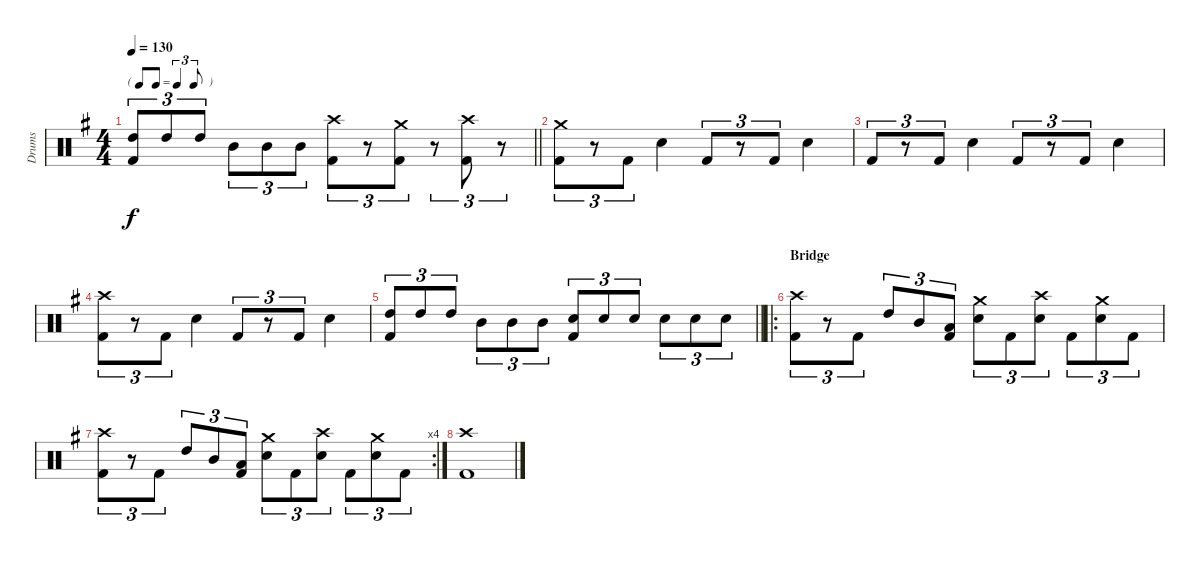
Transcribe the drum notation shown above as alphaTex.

\track ("Drums" "Drums") {instrument percussion}
\staff {score}
\articulation defaults
\ts (4 4)
\tf triplet8th
\tempo 130
\clef neutral
\barLineRight lightlight
\ks eminor
("Kick (hit) 2" "High Tom (hit)").8{tu (3 2) dy f} "High Tom (hit)".8{tu (3 2)} "High Tom (hit)".8{tu (3 2)} "Mid Tom (hit)".8{tu (3 2)} "Mid Tom (hit)".8{tu (3 2)} "Mid Tom (hit)".8{tu (3 2)} ("Kick (hit) 2" "Crash high (hit)").8{tu (3 2)} r.8{tu (3 2)} ("Kick (hit) 2" "Crash medium (hit)").8{tu (3 2)} r.8{tu (3 2)} ("Kick (hit) 2" "Crash high (hit)").8{tu (3 2)} r.8{tu (3 2)} |
("Kick (hit) 2" "Crash medium (hit)").8{tu (3 2)} r.8{tu (3 2)} "Kick (hit) 2".8{tu (3 2)} "Snare (hit) 2".4 "Kick (hit) 2".8{tu (3 2)} r.8{tu (3 2)} "Kick (hit) 2".8{tu (3 2)} "Snare (hit) 2".4 |
"Kick (hit) 2".8{tu (3 2)} r.8{tu (3 2)} "Kick (hit) 2".8{tu (3 2)} "Snare (hit) 2".4 "Kick (hit) 2".8{tu (3 2)} r.8{tu (3 2)} "Kick (hit) 2".8{tu (3 2)} "Snare (hit) 2".4 |
("Kick (hit) 2" "Crash high (hit)").8{tu (3 2)} r.8{tu (3 2)} "Kick (hit) 2".8{tu (3 2)} "Snare (hit) 2".4 "Kick (hit) 2".8{tu (3 2)} r.8{tu (3 2)} "Kick (hit) 2".8{tu (3 2)} "Snare (hit) 2".4 |
\barLineRight lightlight
("Kick (hit) 2" "High Tom (hit)").8{tu (3 2)} "High Tom (hit)".8{tu (3 2)} "High Tom (hit)".8{tu (3 2)} "Mid Tom (hit)".8{tu (3 2)} "Mid Tom (hit)".8{tu (3 2)} "Mid Tom (hit)".8{tu (3 2)} ("Kick (hit) 2" "Snare (hit) 2").8{tu (3 2)} "Snare (hit) 2".8{tu (3 2)} "Snare (hit) 2".8{tu (3 2)} "Snare (hit) 2".8{tu (3 2)} "Snare (hit) 2".8{tu (3 2)} "Snare (hit) 2".8{tu (3 2)} |
\ro
\section ("" "Bridge")
("Kick (hit) 2" "Crash high (hit)").8{tu (3 2)} r.8{tu (3 2)} "Kick (hit) 2".8{tu (3 2)} "High Tom (hit)".8{tu (3 2)} "Mid Tom (hit)".8{tu (3 2)} ("Kick (hit) 2" "Low Tom (hit)").8{tu (3 2)} ("Snare (hit) 2" "Crash medium (hit)").8{tu (3 2)} "Kick (hit) 2".8{tu (3 2)} ("Snare (hit) 2" "Crash high (hit)").8{tu (3 2)} "Kick (hit) 2".8{tu (3 2)} ("Snare (hit) 2" "Crash medium (hit)").8{tu (3 2)} "Kick (hit) 2".8{tu (3 2)} |
\rc 4
("Kick (hit) 2" "Crash high (hit)").8{tu (3 2)} r.8{tu (3 2)} "Kick (hit) 2".8{tu (3 2)} "High Tom (hit)".8{tu (3 2)} "Mid Tom (hit)".8{tu (3 2)} ("Kick (hit) 2" "Low Tom (hit)").8{tu (3 2)} ("Snare (hit) 2" "Crash medium (hit)").8{tu (3 2)} "Kick (hit) 2".8{tu (3 2)} ("Snare (hit) 2" "Crash high (hit)").8{tu (3 2)} "Kick (hit) 2".8{tu (3 2)} ("Snare (hit) 2" "Crash medium (hit)").8{tu (3 2)} "Kick (hit) 2".8{tu (3 2)} |
("Kick (hit) 2" "Crash high (hit)").1
